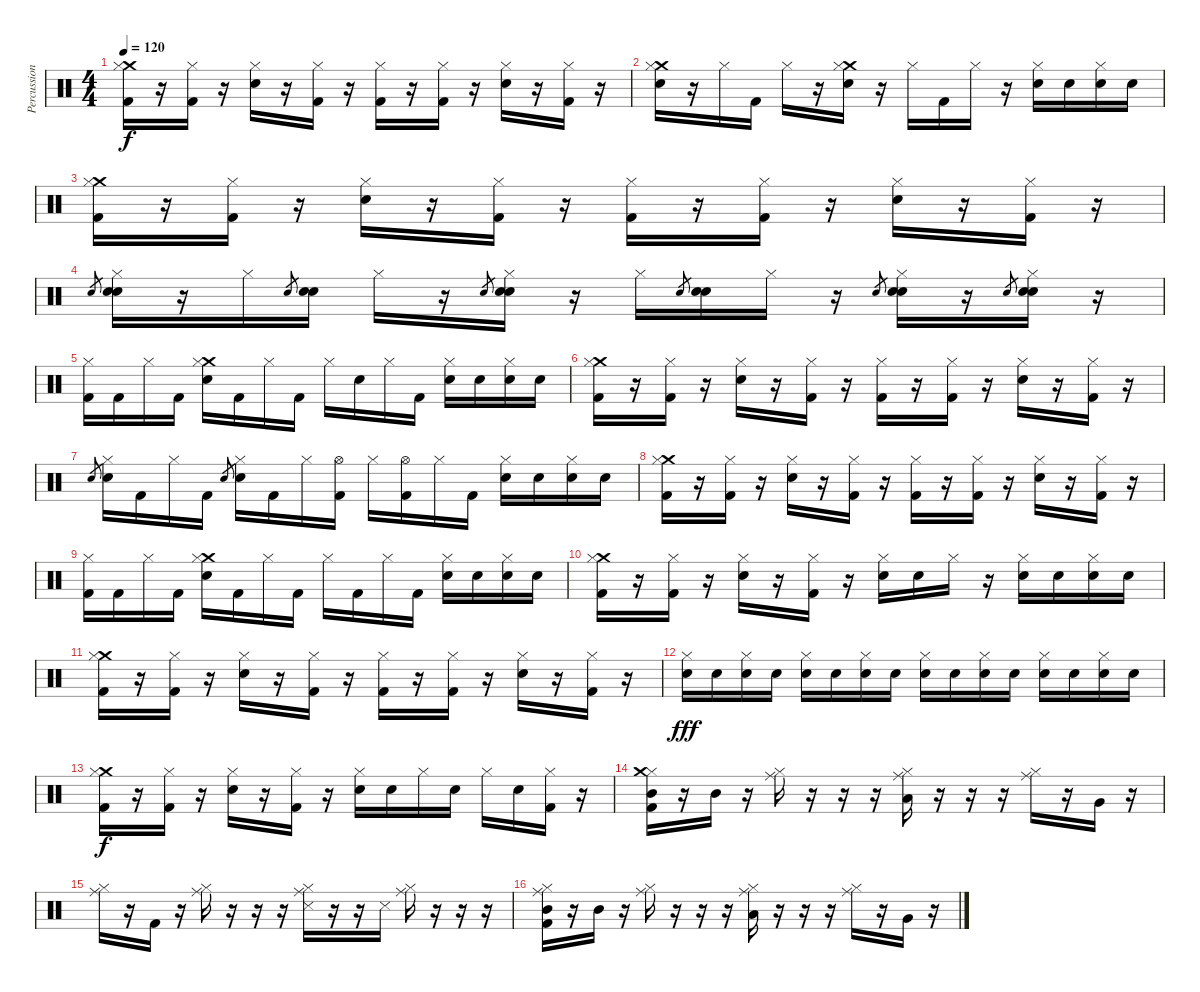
\track ("Percussion" "Percussion") {instrument percussion}
\staff {score}
\articulation defaults
\ts (4 4)
\tempo 120
\clef neutral
\ks c
("Crash medium (hit)" "Hi-Hat (closed)" "Kick (hit) 2").16{dy f} r.16 ("Hi-Hat (closed)" "Kick (hit) 2").16 r.16 ("Hi-Hat (closed)" "Snare (hit) 2").16 r.16 ("Hi-Hat (closed)" "Kick (hit) 2").16 r.16 ("Hi-Hat (closed)" "Kick (hit) 2").16 r.16 ("Hi-Hat (closed)" "Kick (hit) 2").16 r.16 ("Hi-Hat (closed)" "Snare (hit) 2").16 r.16 ("Hi-Hat (closed)" "Kick (hit) 2").16 r.16 |
("Crash medium (hit)" "Hi-Hat (closed)" "Snare (hit) 2").16 r.16 "Hi-Hat (closed)".16 "Kick (hit) 2".16 "Hi-Hat (closed)".16 r.16 ("Crash medium (hit)" "Hi-Hat (closed)" "Snare (hit) 2").16 r.16 "Hi-Hat (closed)".16 "Kick (hit) 2".16 "Hi-Hat (closed)".16 r.16 ("Hi-Hat (closed)" "Snare (hit) 2").16 "Snare (hit) 2".16 ("Hi-Hat (closed)" "Snare (hit) 2").16 "Snare (hit) 2".16 |
("Crash medium (hit)" "Hi-Hat (closed)" "Kick (hit) 2").16 r.16 ("Hi-Hat (closed)" "Kick (hit) 2").16 r.16 ("Hi-Hat (closed)" "Snare (hit) 2").16 r.16 ("Hi-Hat (closed)" "Kick (hit) 2").16 r.16 ("Hi-Hat (closed)" "Kick (hit) 2").16 r.16 ("Hi-Hat (closed)" "Kick (hit) 2").16 r.16 ("Hi-Hat (closed)" "Snare (hit) 2").16 r.16 ("Hi-Hat (closed)" "Kick (hit) 2").16 r.16 |
"Snare (hit) 2".8{gr} ("Hi-Hat (closed)" "Snare (hit) 2" "Snare (hit) 2").16 r.16 "Hi-Hat (closed)".16 "Snare (hit) 2".8{gr} ("Snare (hit) 2" "Snare (hit) 2").16 "Hi-Hat (closed)".16 r.16 "Snare (hit) 2".8{gr} ("Hi-Hat (closed)" "Snare (hit) 2" "Snare (hit) 2").16 r.16 "Hi-Hat (closed)".16 "Snare (hit) 2".8{gr} ("Snare (hit) 2" "Snare (hit) 2").16 "Hi-Hat (closed)".16 r.16 "Snare (hit) 2".8{gr} ("Hi-Hat (closed)" "Snare (hit) 2" "Snare (hit) 2").16 r.16 "Snare (hit) 2".8{gr} ("Hi-Hat (closed)" "Snare (hit) 2" "Snare (hit) 2").16 r.16 |
("Hi-Hat (closed)" "Kick (hit) 2").16 "Kick (hit) 2".16 "Hi-Hat (closed)".16 "Kick (hit) 2".16 ("Crash medium (hit)" "Hi-Hat (closed)" "Snare (hit) 2").16 "Kick (hit) 2".16 "Hi-Hat (closed)".16 "Kick (hit) 2".16 "Hi-Hat (closed)".16 "Snare (hit) 2".16 "Hi-Hat (closed)".16 "Kick (hit) 2".16 ("Hi-Hat (closed)" "Snare (hit) 2").16 "Snare (hit) 2".16 ("Hi-Hat (closed)" "Snare (hit) 2").16 "Snare (hit) 2".16 |
("Crash medium (hit)" "Hi-Hat (closed)" "Kick (hit) 2").16 r.16 ("Hi-Hat (closed)" "Kick (hit) 2").16 r.16 ("Hi-Hat (closed)" "Snare (hit) 2").16 r.16 ("Hi-Hat (closed)" "Kick (hit) 2").16 r.16 ("Hi-Hat (closed)" "Kick (hit) 2").16 r.16 ("Hi-Hat (closed)" "Kick (hit) 2").16 r.16 ("Hi-Hat (closed)" "Snare (hit) 2").16 r.16 ("Hi-Hat (closed)" "Kick (hit) 2").16 r.16 |
"Snare (hit) 2".8{gr} ("Hi-Hat (closed)" "Snare (hit) 2").16 "Kick (hit) 2".16 "Hi-Hat (closed)".16 "Kick (hit) 2".16 "Snare (hit) 2".8{gr} ("Hi-Hat (closed)" "Snare (hit) 2").16 "Kick (hit) 2".16 "Hi-Hat (closed)".16 ("Hi-Hat (open)" "Kick (hit) 2").16 "Hi-Hat (closed)".16 ("Hi-Hat (open)" "Kick (hit) 2").16 "Hi-Hat (closed)".16 "Kick (hit) 2".16 ("Hi-Hat (closed)" "Snare (hit) 2").16 "Snare (hit) 2".16 ("Hi-Hat (closed)" "Snare (hit) 2").16 "Snare (hit) 2".16 |
("Crash medium (hit)" "Hi-Hat (closed)" "Kick (hit) 2").16 r.16 ("Hi-Hat (closed)" "Kick (hit) 2").16 r.16 ("Hi-Hat (closed)" "Snare (hit) 2").16 r.16 ("Hi-Hat (closed)" "Kick (hit) 2").16 r.16 ("Hi-Hat (closed)" "Kick (hit) 2").16 r.16 ("Hi-Hat (closed)" "Kick (hit) 2").16 r.16 ("Hi-Hat (closed)" "Snare (hit) 2").16 r.16 ("Hi-Hat (closed)" "Kick (hit) 2").16 r.16 |
("Hi-Hat (closed)" "Kick (hit) 2").16 "Kick (hit) 2".16 "Hi-Hat (closed)".16 "Kick (hit) 2".16 ("Crash medium (hit)" "Hi-Hat (closed)" "Snare (hit) 2").16 "Kick (hit) 2".16 "Hi-Hat (closed)".16 "Kick (hit) 2".16 "Hi-Hat (closed)".16 "Kick (hit) 2".16 "Hi-Hat (closed)".16 "Kick (hit) 2".16 ("Hi-Hat (closed)" "Snare (hit) 2").16 "Snare (hit) 2".16 ("Hi-Hat (closed)" "Snare (hit) 2").16 "Snare (hit) 2".16 |
("Crash medium (hit)" "Hi-Hat (closed)" "Kick (hit) 2").16 r.16 ("Hi-Hat (closed)" "Kick (hit) 2").16 r.16 ("Hi-Hat (closed)" "Snare (hit) 2").16 r.16 ("Hi-Hat (closed)" "Kick (hit) 2").16 r.16 ("Hi-Hat (closed)" "Snare (hit) 2").16 "Snare (hit) 2".16 "Hi-Hat (closed)".16 r.16 ("Hi-Hat (closed)" "Snare (hit) 2").16 "Snare (hit) 2".16 ("Hi-Hat (closed)" "Snare (hit) 2").16 "Snare (hit) 2".16 |
("Crash medium (hit)" "Hi-Hat (closed)" "Kick (hit) 2").16 r.16 ("Hi-Hat (closed)" "Kick (hit) 2").16 r.16 ("Hi-Hat (closed)" "Snare (hit) 2").16 r.16 ("Hi-Hat (closed)" "Kick (hit) 2").16 r.16 ("Hi-Hat (closed)" "Kick (hit) 2").16 r.16 ("Hi-Hat (closed)" "Kick (hit) 2").16 r.16 ("Hi-Hat (closed)" "Snare (hit) 2").16 r.16 ("Hi-Hat (closed)" "Kick (hit) 2").16 r.16 |
("Hi-Hat (closed)" "Snare (hit) 2").16{dy fff} "Snare (hit) 2".16 ("Hi-Hat (closed)" "Snare (hit) 2").16 "Snare (hit) 2".16 ("Hi-Hat (closed)" "Snare (hit) 2").16 "Snare (hit) 2".16 ("Hi-Hat (closed)" "Snare (hit) 2").16 "Snare (hit) 2".16 ("Hi-Hat (closed)" "Snare (hit) 2").16 "Snare (hit) 2".16 ("Hi-Hat (closed)" "Snare (hit) 2").16 "Snare (hit) 2".16 ("Hi-Hat (closed)" "Snare (hit) 2").16 "Snare (hit) 2".16 ("Hi-Hat (closed)" "Snare (hit) 2").16 "Snare (hit) 2".16 |
("Crash medium (hit)" "Hi-Hat (closed)" "Kick (hit) 2").16{dy f} r.16 ("Hi-Hat (closed)" "Kick (hit) 2").16 r.16 ("Hi-Hat (closed)" "Snare (hit) 2").16 r.16 ("Hi-Hat (closed)" "Kick (hit) 2").16 r.16 ("Hi-Hat (closed)" "Snare (hit) 2").16 "Snare (hit) 2".16 "Hi-Hat (closed)".16 "Snare (hit) 2".16 "Hi-Hat (closed)".16 "Snare (hit) 2".16 ("Hi-Hat (closed)" "Kick (hit) 2").16 r.16 |
("Hi-Hat (closed)" "Crash medium (hit)" "Mid Tom (hit)" "Kick (hit) 2").16{volume 9} r.16 "Mid Tom (hit)".16 r.16 ("Hi-Hat (closed)" "Ride (middle)").16 r.16 r.16 r.16 ("Hi-Hat (closed)" "Ride (middle)" "Low Tom (hit)").16 r.16 r.16 r.16 ("Hi-Hat (closed)" "Ride (middle)").16 r.16 "Very Low Tom (hit)".16 r.16 |
("Hi-Hat (closed)" "Ride (middle)").16 r.16 "Kick (hit) 2".16 r.16 ("Hi-Hat (closed)" "Ride (middle)").16 r.16 r.16 r.16 ("Hi-Hat (closed)" "Ride (middle)" "Snare (side stick) 3").16 r.16 r.16 "Snare (side stick) 3".16 ("Hi-Hat (closed)" "Ride (middle)").16 r.16 r.16 r.16 |
("Hi-Hat (closed)" "Ride (middle)" "Mid Tom (hit)" "Kick (hit) 2").16 r.16 "Mid Tom (hit)".16 r.16 ("Hi-Hat (closed)" "Ride (middle)").16 r.16 r.16 r.16 ("Hi-Hat (closed)" "Ride (middle)" "Low Tom (hit)").16 r.16 r.16 r.16 ("Hi-Hat (closed)" "Ride (middle)").16 r.16 "Very Low Tom (hit)".16 r.16
